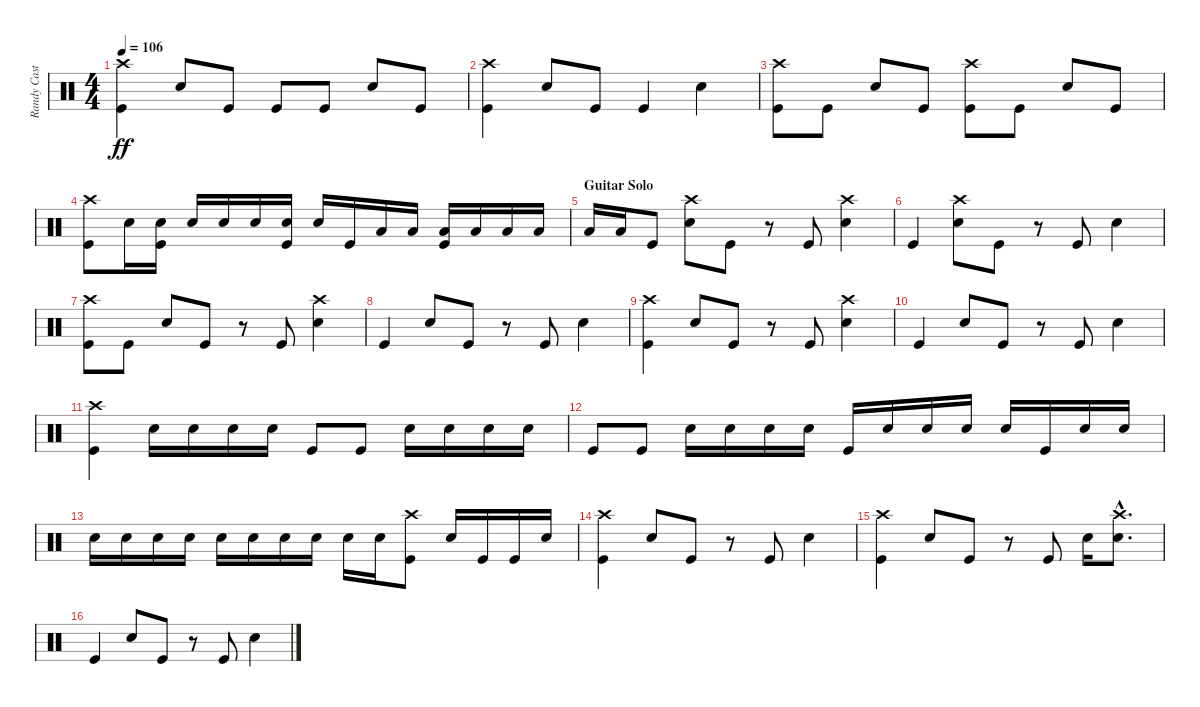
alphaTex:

\track ("Randy Castillo" "Randy Cast") {instrument percussion}
\staff {score}
\articulation defaults
\ts (4 4)
\tempo 106
\clef neutral
\ks c
("Crash high (hit)" "Kick (hit)").4{dy ff} "Snare (hit) 2".8 "Kick (hit)".8 "Kick (hit)".8 "Kick (hit)".8 "Snare (hit) 2".8 "Kick (hit)".8 |
("Crash high (hit)" "Kick (hit)").4 "Snare (hit) 2".8 "Kick (hit)".8 "Kick (hit)".4 "Snare (hit) 2".4 |
("Crash high (hit)" "Kick (hit)").8 "Kick (hit)".8 "Snare (hit) 2".8 "Kick (hit)".8 ("Crash high (hit)" "Kick (hit)").8 "Kick (hit)".8 "Snare (hit) 2".8 "Kick (hit)".8 |
("Crash high (hit)" "Kick (hit)").8 "Snare (hit) 2".16 ("Snare (hit) 2" "Kick (hit)").16 "Snare (hit) 2".16 "Snare (hit) 2".16 "Snare (hit) 2".16 ("Snare (hit) 2" "Kick (hit)").16 "Snare (hit) 2".16 "Kick (hit)".16 "Low Tom (hit)".16 "Low Tom (hit)".16 ("Low Tom (hit)" "Kick (hit)").16 "Low Tom (hit)".16 "Low Tom (hit)".16 "Low Tom (hit)".16 |
\section ("" "Guitar Solo")
"Low Tom (hit)".16 "Low Tom (hit)".16 "Kick (hit)".8 ("Crash high (hit)" "Snare (hit) 2").8 "Kick (hit)".8 r.8 "Kick (hit)".8 ("Crash high (hit)" "Snare (hit) 2").4 |
"Kick (hit)".4 ("Crash high (hit)" "Snare (hit) 2").8 "Kick (hit)".8 r.8 "Kick (hit)".8 "Snare (hit) 2".4 |
("Crash high (hit)" "Kick (hit)").8 "Kick (hit)".8 "Snare (hit) 2".8 "Kick (hit)".8 r.8 "Kick (hit)".8 ("Crash high (hit)" "Snare (hit) 2").4 |
"Kick (hit)".4 "Snare (hit) 2".8 "Kick (hit)".8 r.8 "Kick (hit)".8 "Snare (hit) 2".4 |
("Crash high (hit)" "Kick (hit)").4 "Snare (hit) 2".8 "Kick (hit)".8 r.8 "Kick (hit)".8 ("Crash high (hit)" "Snare (hit) 2").4 |
"Kick (hit)".4 "Snare (hit) 2".8 "Kick (hit)".8 r.8 "Kick (hit)".8 "Snare (hit) 2".4 |
("Crash high (hit)" "Kick (hit)").4 "Snare (hit) 2".16 "Snare (hit) 2".16 "Snare (hit) 2".16 "Snare (hit) 2".16 "Kick (hit)".8 "Kick (hit)".8 "Snare (hit) 2".16 "Snare (hit) 2".16 "Snare (hit) 2".16 "Snare (hit) 2".16 |
"Kick (hit)".8 "Kick (hit)".8 "Snare (hit) 2".16 "Snare (hit) 2".16 "Snare (hit) 2".16 "Snare (hit) 2".16 "Kick (hit)".16 "Snare (hit) 2".16 "Snare (hit) 2".16 "Snare (hit) 2".16 "Snare (hit) 2".16 "Kick (hit)".16 "Snare (hit) 2".16 "Snare (hit) 2".16 |
"Snare (hit) 2".16 "Snare (hit) 2".16 "Snare (hit) 2".16 "Snare (hit) 2".16 "Snare (hit) 2".16 "Snare (hit) 2".16 "Snare (hit) 2".16 "Snare (hit) 2".16 "Snare (hit) 2".16 "Snare (hit) 2".16 ("Crash high (hit)" "Kick (hit)").8 "Snare (hit) 2".16 "Kick (hit)".16 "Kick (hit)".16 "Snare (hit) 2".16 |
("Crash high (hit)" "Kick (hit)").4 "Snare (hit) 2".8 "Kick (hit)".8 r.8 "Kick (hit)".8 "Snare (hit) 2".4 |
("Crash high (hit)" "Kick (hit)").4 "Snare (hit) 2".8 "Kick (hit)".8 r.8 "Kick (hit)".8 "Snare (hit) 2".16 ("Crash high (hit)"{hac} "Snare (hit) 2"{hac}).8{d} |
"Kick (hit)".4 "Snare (hit) 2".8 "Kick (hit)".8 r.8 "Kick (hit)".8 "Snare (hit) 2".4
